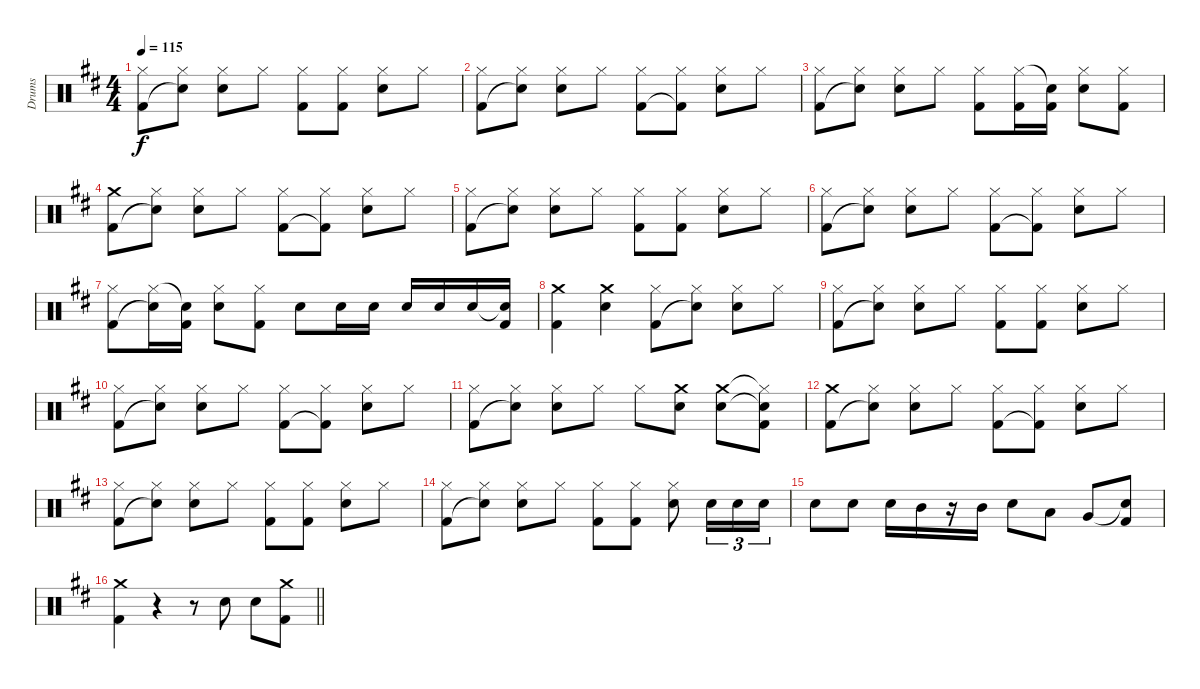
\track ("Drums" "Drums") {instrument percussion}
\staff {score}
\articulation defaults
\ts (4 4)
\tempo 115
\clef neutral
\ks d
("Hi-Hat (closed)" "Kick (hit) 2").8{dy f} ("Hi-Hat (closed)" "Snare (hit)"{t}).8 ("Hi-Hat (closed)" "Electric Snare (hit)").8 "Hi-Hat (closed)".8 ("Hi-Hat (closed)" "Kick (hit) 2").8 ("Hi-Hat (closed)" "Kick (hit) 2").8 ("Hi-Hat (closed)" "Electric Snare (hit)").8 "Hi-Hat (closed)".8 |
("Hi-Hat (closed)" "Kick (hit) 2").8 ("Hi-Hat (closed)" "Snare (hit)"{t}).8 ("Hi-Hat (closed)" "Electric Snare (hit)").8 "Hi-Hat (closed)".8 ("Hi-Hat (closed)" "Kick (hit) 2").8 ("Hi-Hat (closed)" "Kick (hit) 2"{t}).8 ("Hi-Hat (closed)" "Electric Snare (hit)").8 "Hi-Hat (closed)".8 |
("Hi-Hat (closed)" "Kick (hit) 2").8 ("Hi-Hat (closed)" "Snare (hit)"{t}).8 ("Hi-Hat (closed)" "Electric Snare (hit)").8 "Hi-Hat (closed)".8 ("Hi-Hat (closed)" "Kick (hit) 2").8 ("Hi-Hat (closed)" "Kick (hit) 2").16 ("Snare (hit)"{t} "Kick (hit) 2").16 ("Hi-Hat (closed)" "Electric Snare (hit)").8 ("Hi-Hat (closed)" "Kick (hit) 2").8 |
("Crash medium (hit)" "Kick (hit) 2").8 ("Hi-Hat (closed)" "Snare (hit)"{t}).8 ("Hi-Hat (closed)" "Electric Snare (hit)").8 "Hi-Hat (closed)".8 ("Hi-Hat (closed)" "Kick (hit) 2").8 ("Hi-Hat (closed)" "Kick (hit) 2"{t}).8 ("Hi-Hat (closed)" "Electric Snare (hit)").8 "Hi-Hat (closed)".8 |
("Hi-Hat (closed)" "Kick (hit) 2").8 ("Hi-Hat (closed)" "Snare (hit)"{t}).8 ("Hi-Hat (closed)" "Electric Snare (hit)").8 "Hi-Hat (closed)".8 ("Hi-Hat (closed)" "Kick (hit) 2").8 ("Hi-Hat (closed)" "Kick (hit) 2").8 ("Hi-Hat (closed)" "Electric Snare (hit)").8 "Hi-Hat (closed)".8 |
("Hi-Hat (closed)" "Kick (hit) 2").8 ("Hi-Hat (closed)" "Snare (hit)"{t}).8 ("Hi-Hat (closed)" "Electric Snare (hit)").8 "Hi-Hat (closed)".8 ("Hi-Hat (closed)" "Kick (hit) 2").8 ("Hi-Hat (closed)" "Kick (hit) 2"{t}).8 ("Hi-Hat (closed)" "Electric Snare (hit)").8 "Hi-Hat (closed)".8 |
("Hi-Hat (closed)" "Kick (hit) 2").8 ("Hi-Hat (closed)" "Snare (hit)"{t}).16 ("Snare (hit)"{t} "Kick (hit) 2").16 ("Hi-Hat (closed)" "Electric Snare (hit)").8 ("Hi-Hat (closed)" "Kick (hit) 2").8 "Electric Snare (hit)".8 "Electric Snare (hit)".16 "Electric Snare (hit)".16 "Electric Snare (hit)".16 "Electric Snare (hit)".16 "Electric Snare (hit)".16 ("Snare (hit)"{t} "Kick (hit) 2").16 |
("Crash medium (hit)" "Kick (hit) 2").4 ("Crash medium (hit)" "Electric Snare (hit)").4 ("Hi-Hat (closed)" "Kick (hit) 2").8 ("Hi-Hat (closed)" "Snare (hit)"{t}).8 ("Hi-Hat (closed)" "Electric Snare (hit)").8 "Hi-Hat (closed)".8 |
("Hi-Hat (closed)" "Kick (hit) 2").8 ("Hi-Hat (closed)" "Snare (hit)"{t}).8 ("Hi-Hat (closed)" "Electric Snare (hit)").8 "Hi-Hat (closed)".8 ("Hi-Hat (closed)" "Kick (hit) 2").8 ("Hi-Hat (closed)" "Kick (hit) 2").8 ("Hi-Hat (closed)" "Electric Snare (hit)").8 "Hi-Hat (closed)".8 |
("Hi-Hat (closed)" "Kick (hit) 2").8 ("Hi-Hat (closed)" "Snare (hit)"{t}).8 ("Hi-Hat (closed)" "Electric Snare (hit)").8 "Hi-Hat (closed)".8 ("Hi-Hat (closed)" "Kick (hit) 2").8 ("Hi-Hat (closed)" "Kick (hit) 2"{t}).8 ("Hi-Hat (closed)" "Electric Snare (hit)").8 "Hi-Hat (closed)".8 |
("Hi-Hat (closed)" "Kick (hit) 2").8 ("Hi-Hat (closed)" "Snare (hit)"{t}).8 ("Hi-Hat (closed)" "Electric Snare (hit)").8 "Hi-Hat (closed)".8 "Hi-Hat (closed)".8 ("Crash medium (hit)" "Electric Snare (hit)").8 ("Crash medium (hit)" "Electric Snare (hit)").8 ("Hi-Hat (closed)"{t} "Snare (hit)"{t} "Kick (hit) 2").8 |
("Crash medium (hit)" "Kick (hit) 2").8 ("Hi-Hat (closed)" "Snare (hit)"{t}).8 ("Hi-Hat (closed)" "Electric Snare (hit)").8 "Hi-Hat (closed)".8 ("Hi-Hat (closed)" "Kick (hit) 2").8 ("Hi-Hat (closed)" "Kick (hit) 2"{t}).8 ("Hi-Hat (closed)" "Electric Snare (hit)").8 "Hi-Hat (closed)".8 |
("Hi-Hat (closed)" "Kick (hit) 2").8 ("Hi-Hat (closed)" "Snare (hit)"{t}).8 ("Hi-Hat (closed)" "Electric Snare (hit)").8 "Hi-Hat (closed)".8 ("Hi-Hat (closed)" "Kick (hit) 2").8 ("Hi-Hat (closed)" "Kick (hit) 2").8 ("Hi-Hat (closed)" "Electric Snare (hit)").8 "Hi-Hat (closed)".8 |
("Hi-Hat (closed)" "Kick (hit) 2").8 ("Hi-Hat (closed)" "Snare (hit)"{t}).8 ("Hi-Hat (closed)" "Electric Snare (hit)").8 "Hi-Hat (closed)".8 ("Hi-Hat (closed)" "Kick (hit) 2").8 ("Hi-Hat (closed)" "Kick (hit) 2").8 ("Hi-Hat (closed)" "Electric Snare (hit)").8 "Electric Snare (hit)".16{tu (3 2)} "Electric Snare (hit)".16{tu (3 2)} "Electric Snare (hit)".16{tu (3 2)} |
"Electric Snare (hit)".8 "Electric Snare (hit)".8 "Electric Snare (hit)".16 "Mid Tom (hit)".16 r.16 "Mid Tom (hit)".16 "Electric Snare (hit)".8 "Low Tom (hit)".8 "Very Low Tom (hit)".8 ("Snare (hit)"{t} "Kick (hit) 2").8 |
\barLineRight lightlight
("Crash medium (hit)" "Kick (hit) 2").4 r.4 r.8 "Electric Snare (hit)".8 "Electric Snare (hit)".8 ("Crash medium (hit)" "Kick (hit) 2").8
